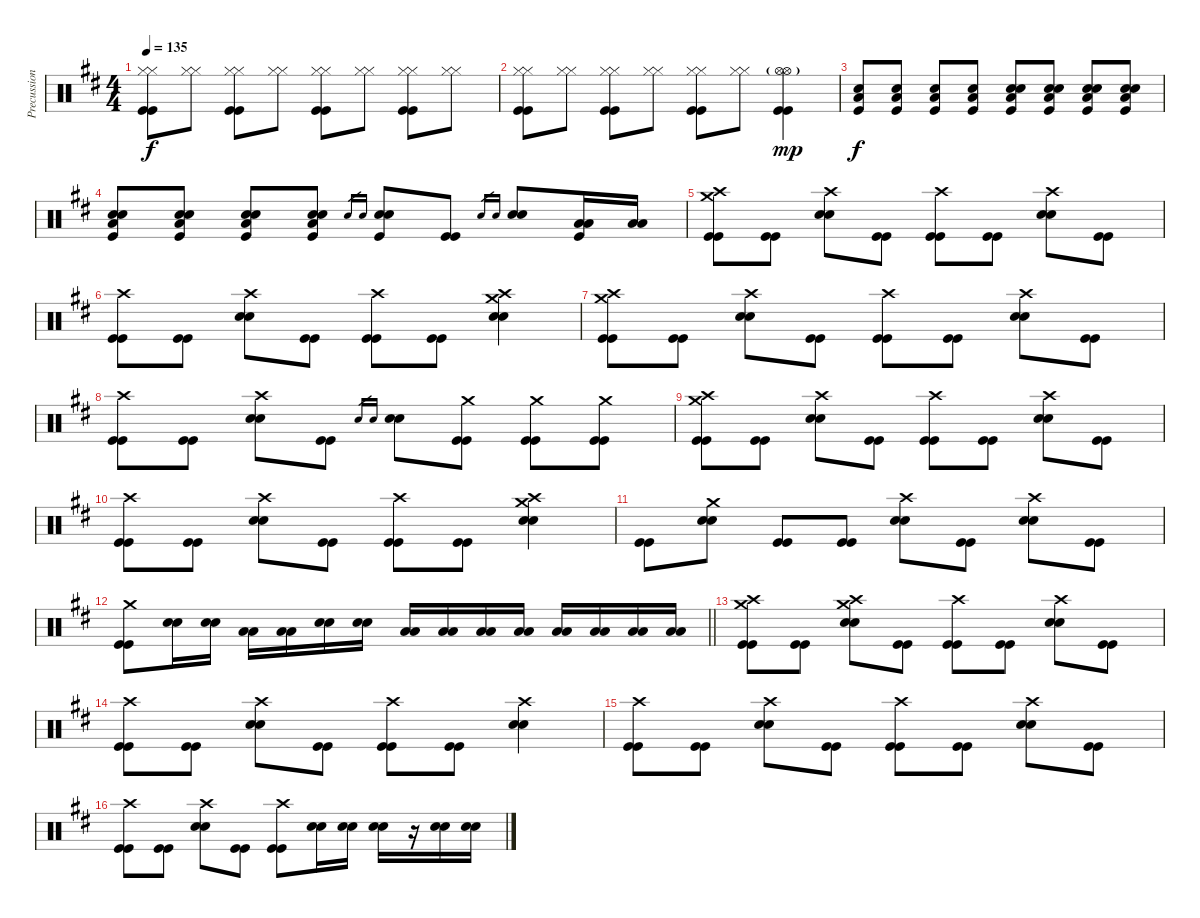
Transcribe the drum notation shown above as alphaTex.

\track ("Precussion" "Precussion") {instrument percussion}
\staff {score}
\articulation defaults
\ts (4 4)
\tempo 135
\clef neutral
\ks d
("Hi-Hat (closed)" "Hi-Hat (closed)" "Kick (hit)" "Kick (hit)").8{dy f} ("Hi-Hat (closed)" "Hi-Hat (closed)").8 ("Hi-Hat (closed)" "Hi-Hat (closed)" "Kick (hit)" "Kick (hit)").8 ("Hi-Hat (closed)" "Hi-Hat (closed)").8 ("Hi-Hat (closed)" "Hi-Hat (closed)" "Kick (hit)" "Kick (hit)").8 ("Hi-Hat (closed)" "Hi-Hat (closed)").8 ("Hi-Hat (closed)" "Hi-Hat (closed)" "Kick (hit)" "Kick (hit)").8 ("Hi-Hat (closed)" "Hi-Hat (closed)").8 |
("Hi-Hat (closed)" "Hi-Hat (closed)" "Kick (hit)" "Kick (hit)").8 ("Hi-Hat (closed)" "Hi-Hat (closed)").8 ("Hi-Hat (closed)" "Hi-Hat (closed)" "Kick (hit)" "Kick (hit)").8 ("Hi-Hat (closed)" "Hi-Hat (closed)").8 ("Hi-Hat (closed)" "Hi-Hat (closed)" "Kick (hit)" "Kick (hit)").8 ("Hi-Hat (closed)" "Hi-Hat (closed)").8 ("Hi-Hat (open)"{g} "Hi-Hat (open)"{g} "Kick (hit)" "Kick (hit)").4{dy mp} |
("Electric Snare (hit)" "Low Floor Tom (hit)" "Kick (hit)").8{dy f} ("Electric Snare (hit)" "Low Floor Tom (hit)" "Kick (hit)").8 ("Electric Snare (hit)" "Low Floor Tom (hit)" "Kick (hit)").8 ("Electric Snare (hit)" "Low Floor Tom (hit)" "Kick (hit)").8 ("Electric Snare (hit)" "Electric Snare (hit)" "Low Floor Tom (hit)" "Kick (hit)").8 ("Electric Snare (hit)" "Electric Snare (hit)" "Low Floor Tom (hit)" "Kick (hit)").8 ("Electric Snare (hit)" "Electric Snare (hit)" "Low Floor Tom (hit)" "Kick (hit)").8 ("Electric Snare (hit)" "Electric Snare (hit)" "Low Floor Tom (hit)" "Kick (hit)").8 |
("Electric Snare (hit)" "Electric Snare (hit)" "Low Floor Tom (hit)" "Kick (hit)").8 ("Electric Snare (hit)" "Electric Snare (hit)" "Low Floor Tom (hit)" "Kick (hit)").8 ("Electric Snare (hit)" "Electric Snare (hit)" "Low Floor Tom (hit)" "Kick (hit)").8 ("Electric Snare (hit)" "Electric Snare (hit)" "Low Floor Tom (hit)" "Kick (hit)").8 "Electric Snare (hit)".16{gr} "Electric Snare (hit)".16{gr} ("Electric Snare (hit)" "Electric Snare (hit)" "Kick (hit)").8 ("Kick (hit)" "Kick (hit)").8 "Electric Snare (hit)".16{gr} "Electric Snare (hit)".16{gr} ("Electric Snare (hit)" "Electric Snare (hit)").8 ("Low Floor Tom (hit)" "Low Floor Tom (hit)" "Kick (hit)").16 ("Low Floor Tom (hit)" "Low Floor Tom (hit)").16 |
("Crash high (hit)" "Crash medium (hit)" "Kick (hit)" "Kick (hit)").8 ("Kick (hit)" "Kick (hit)").8 ("Crash high (hit)" "Electric Snare (hit)" "Electric Snare (hit)").8 ("Kick (hit)" "Kick (hit)").8 ("Crash high (hit)" "Kick (hit)" "Kick (hit)").8 ("Kick (hit)" "Kick (hit)").8 ("Crash high (hit)" "Electric Snare (hit)" "Electric Snare (hit)").8 ("Kick (hit)" "Kick (hit)").8 |
("Crash high (hit)" "Kick (hit)" "Kick (hit)").8 ("Kick (hit)" "Kick (hit)").8 ("Crash high (hit)" "Electric Snare (hit)" "Electric Snare (hit)").8 ("Kick (hit)" "Kick (hit)").8 ("Crash high (hit)" "Kick (hit)" "Kick (hit)").8 ("Kick (hit)" "Kick (hit)").8 ("Crash high (hit)" "Crash medium (hit)" "Electric Snare (hit)" "Electric Snare (hit)").4 |
("Crash high (hit)" "Crash medium (hit)" "Kick (hit)" "Kick (hit)").8 ("Kick (hit)" "Kick (hit)").8 ("Crash high (hit)" "Electric Snare (hit)" "Electric Snare (hit)").8 ("Kick (hit)" "Kick (hit)").8 ("Crash high (hit)" "Kick (hit)" "Kick (hit)").8 ("Kick (hit)" "Kick (hit)").8 ("Crash high (hit)" "Electric Snare (hit)" "Electric Snare (hit)").8 ("Kick (hit)" "Kick (hit)").8 |
("Crash high (hit)" "Kick (hit)" "Kick (hit)").8 ("Kick (hit)" "Kick (hit)").8 ("Crash high (hit)" "Electric Snare (hit)" "Electric Snare (hit)").8 ("Kick (hit)" "Kick (hit)").8 "Electric Snare (hit)".16{gr} "Electric Snare (hit)".16{gr} ("Electric Snare (hit)" "Electric Snare (hit)").8 ("Crash medium (hit)" "Kick (hit)" "Kick (hit)").8 ("Crash medium (hit)" "Kick (hit)" "Kick (hit)").8 ("Crash medium (hit)" "Kick (hit)" "Kick (hit)").8 |
("Crash high (hit)" "Crash medium (hit)" "Kick (hit)" "Kick (hit)").8 ("Kick (hit)" "Kick (hit)").8 ("Crash high (hit)" "Electric Snare (hit)" "Electric Snare (hit)").8 ("Kick (hit)" "Kick (hit)").8 ("Crash high (hit)" "Kick (hit)" "Kick (hit)").8 ("Kick (hit)" "Kick (hit)").8 ("Crash high (hit)" "Electric Snare (hit)" "Electric Snare (hit)").8 ("Kick (hit)" "Kick (hit)").8 |
("Crash high (hit)" "Kick (hit)" "Kick (hit)").8 ("Kick (hit)" "Kick (hit)").8 ("Crash high (hit)" "Electric Snare (hit)" "Electric Snare (hit)").8 ("Kick (hit)" "Kick (hit)").8 ("Crash high (hit)" "Kick (hit)" "Kick (hit)").8 ("Kick (hit)" "Kick (hit)").8 ("Crash high (hit)" "Crash medium (hit)" "Electric Snare (hit)" "Electric Snare (hit)").4 |
("Kick (hit)" "Kick (hit)").8 ("Crash medium (hit)" "Electric Snare (hit)" "Electric Snare (hit)").8 ("Kick (hit)" "Kick (hit)").8 ("Kick (hit)" "Kick (hit)").8 ("Crash high (hit)" "Electric Snare (hit)" "Electric Snare (hit)").8 ("Kick (hit)" "Kick (hit)").8 ("Crash high (hit)" "Electric Snare (hit)" "Electric Snare (hit)").8 ("Kick (hit)" "Kick (hit)").8 |
\barLineRight lightlight
("Crash medium (hit)" "Kick (hit)" "Kick (hit)").8 ("Electric Snare (hit)" "Electric Snare (hit)").16 ("Electric Snare (hit)" "Electric Snare (hit)").16 ("Low Tom (hit)" "Low Tom (hit)").16 ("Low Tom (hit)" "Low Tom (hit)").16 ("Electric Snare (hit)" "Electric Snare (hit)").16 ("Electric Snare (hit)" "Electric Snare (hit)").16 ("Low Tom (hit)" "Low Tom (hit)").16 ("Low Tom (hit)" "Low Tom (hit)").16 ("Low Tom (hit)" "Low Tom (hit)").16 ("Low Tom (hit)" "Low Tom (hit)").16 ("Low Floor Tom (hit)" "Low Floor Tom (hit)").16 ("Low Floor Tom (hit)" "Low Floor Tom (hit)").16 ("Low Floor Tom (hit)" "Low Floor Tom (hit)").16 ("Low Floor Tom (hit)" "Low Floor Tom (hit)").16 |
("Crash high (hit)" "Crash medium (hit)" "Kick (hit)" "Kick (hit)").8 ("Kick (hit)" "Kick (hit)").8 ("Crash high (hit)" "Crash medium (hit)" "Electric Snare (hit)" "Electric Snare (hit)").8 ("Kick (hit)" "Kick (hit)").8 ("Crash high (hit)" "Kick (hit)" "Kick (hit)").8 ("Kick (hit)" "Kick (hit)").8 ("Crash high (hit)" "Electric Snare (hit)" "Electric Snare (hit)").8 ("Kick (hit)" "Kick (hit)").8 |
("Crash high (hit)" "Kick (hit)" "Kick (hit)").8 ("Kick (hit)" "Kick (hit)").8 ("Crash high (hit)" "Electric Snare (hit)" "Electric Snare (hit)").8 ("Kick (hit)" "Kick (hit)").8 ("Crash high (hit)" "Kick (hit)" "Kick (hit)").8 ("Kick (hit)" "Kick (hit)").8 ("Crash high (hit)" "Electric Snare (hit)" "Electric Snare (hit)").4 |
("Crash high (hit)" "Kick (hit)" "Kick (hit)").8 ("Kick (hit)" "Kick (hit)").8 ("Crash high (hit)" "Electric Snare (hit)" "Electric Snare (hit)").8 ("Kick (hit)" "Kick (hit)").8 ("Crash high (hit)" "Kick (hit)" "Kick (hit)").8 ("Kick (hit)" "Kick (hit)").8 ("Crash high (hit)" "Electric Snare (hit)" "Electric Snare (hit)").8 ("Kick (hit)" "Kick (hit)").8 |
("Crash high (hit)" "Kick (hit)" "Kick (hit)").8 ("Kick (hit)" "Kick (hit)").8 ("Crash high (hit)" "Electric Snare (hit)" "Electric Snare (hit)").8 ("Kick (hit)" "Kick (hit)").8 ("Crash high (hit)" "Kick (hit)" "Kick (hit)").8 ("Electric Snare (hit)" "Electric Snare (hit)").16 ("Electric Snare (hit)" "Electric Snare (hit)").16 ("Electric Snare (hit)" "Electric Snare (hit)").16 r.16 ("Electric Snare (hit)" "Electric Snare (hit)").16 ("Electric Snare (hit)" "Electric Snare (hit)").16
